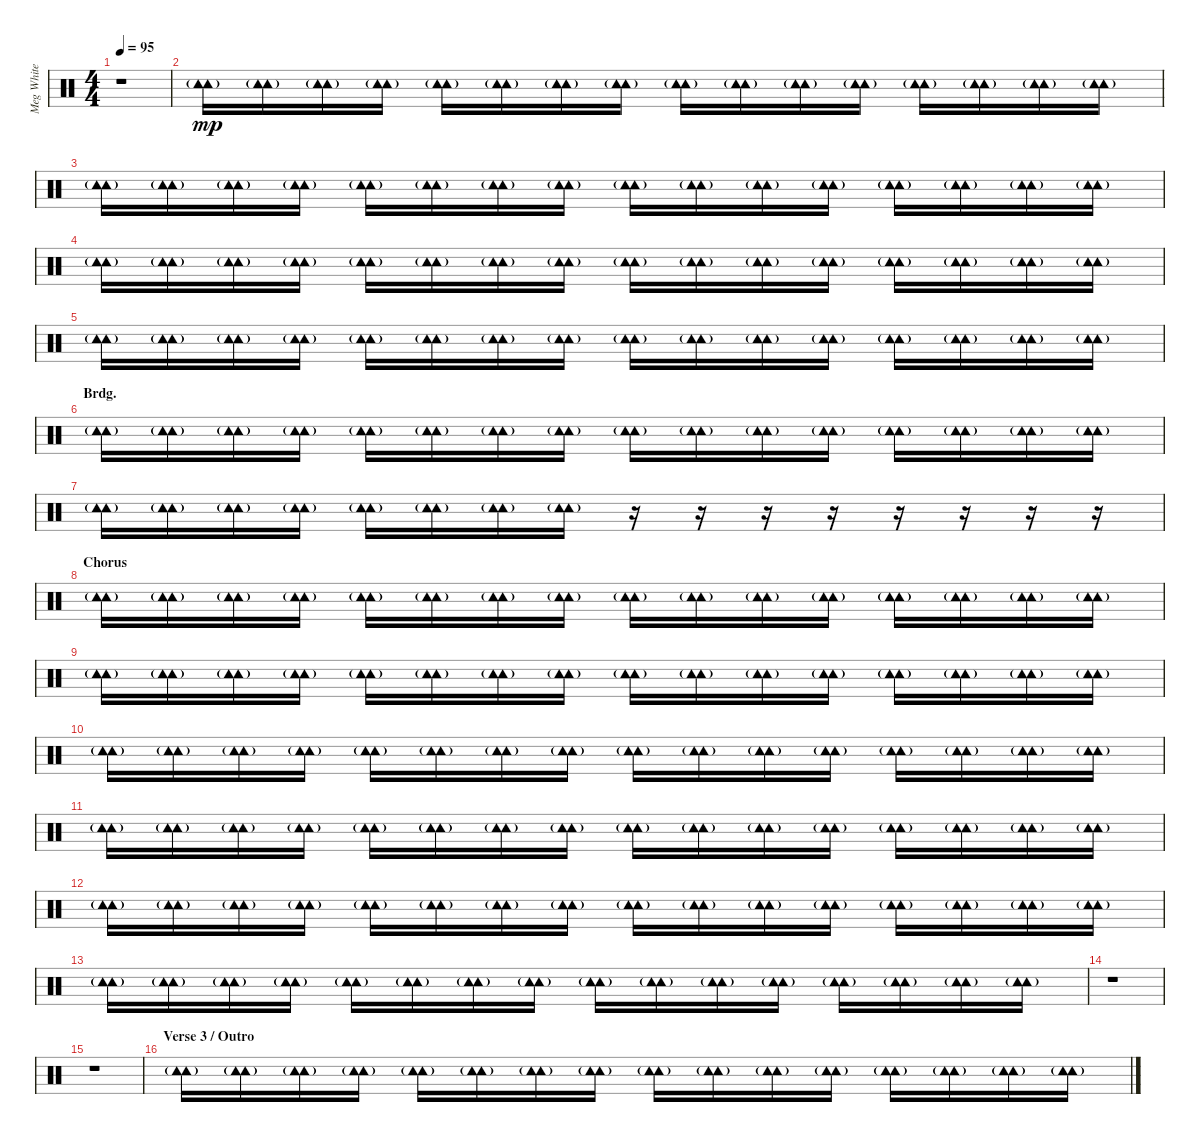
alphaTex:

\track ("Meg White - Purcussions" "Meg White ") {instrument percussion}
\staff {score}
\articulation defaults
\ts (4 4)
\tempo 95
\clef neutral
\ks c
r.1{dy mp} |
("Tambourine (hit)"{g} "Tambourine (hit)"{g}).16 ("Tambourine (hit)"{g} "Tambourine (hit)"{g}).16 ("Tambourine (hit)"{g} "Tambourine (hit)"{g}).16 ("Tambourine (hit)"{g} "Tambourine (hit)"{g}).16 ("Tambourine (hit)"{g} "Tambourine (hit)"{g}).16 ("Tambourine (hit)"{g} "Tambourine (hit)"{g}).16 ("Tambourine (hit)"{g} "Tambourine (hit)"{g}).16 ("Tambourine (hit)"{g} "Tambourine (hit)"{g}).16 ("Tambourine (hit)"{g} "Tambourine (hit)"{g}).16 ("Tambourine (hit)"{g} "Tambourine (hit)"{g}).16 ("Tambourine (hit)"{g} "Tambourine (hit)"{g}).16 ("Tambourine (hit)"{g} "Tambourine (hit)"{g}).16 ("Tambourine (hit)"{g} "Tambourine (hit)"{g}).16 ("Tambourine (hit)"{g} "Tambourine (hit)"{g}).16 ("Tambourine (hit)"{g} "Tambourine (hit)"{g}).16 ("Tambourine (hit)"{g} "Tambourine (hit)"{g}).16 |
("Tambourine (hit)"{g} "Tambourine (hit)"{g}).16 ("Tambourine (hit)"{g} "Tambourine (hit)"{g}).16 ("Tambourine (hit)"{g} "Tambourine (hit)"{g}).16 ("Tambourine (hit)"{g} "Tambourine (hit)"{g}).16 ("Tambourine (hit)"{g} "Tambourine (hit)"{g}).16 ("Tambourine (hit)"{g} "Tambourine (hit)"{g}).16 ("Tambourine (hit)"{g} "Tambourine (hit)"{g}).16 ("Tambourine (hit)"{g} "Tambourine (hit)"{g}).16 ("Tambourine (hit)"{g} "Tambourine (hit)"{g}).16 ("Tambourine (hit)"{g} "Tambourine (hit)"{g}).16 ("Tambourine (hit)"{g} "Tambourine (hit)"{g}).16 ("Tambourine (hit)"{g} "Tambourine (hit)"{g}).16 ("Tambourine (hit)"{g} "Tambourine (hit)"{g}).16 ("Tambourine (hit)"{g} "Tambourine (hit)"{g}).16 ("Tambourine (hit)"{g} "Tambourine (hit)"{g}).16 ("Tambourine (hit)"{g} "Tambourine (hit)"{g}).16 |
("Tambourine (hit)"{g} "Tambourine (hit)"{g}).16 ("Tambourine (hit)"{g} "Tambourine (hit)"{g}).16 ("Tambourine (hit)"{g} "Tambourine (hit)"{g}).16 ("Tambourine (hit)"{g} "Tambourine (hit)"{g}).16 ("Tambourine (hit)"{g} "Tambourine (hit)"{g}).16 ("Tambourine (hit)"{g} "Tambourine (hit)"{g}).16 ("Tambourine (hit)"{g} "Tambourine (hit)"{g}).16 ("Tambourine (hit)"{g} "Tambourine (hit)"{g}).16 ("Tambourine (hit)"{g} "Tambourine (hit)"{g}).16 ("Tambourine (hit)"{g} "Tambourine (hit)"{g}).16 ("Tambourine (hit)"{g} "Tambourine (hit)"{g}).16 ("Tambourine (hit)"{g} "Tambourine (hit)"{g}).16 ("Tambourine (hit)"{g} "Tambourine (hit)"{g}).16 ("Tambourine (hit)"{g} "Tambourine (hit)"{g}).16 ("Tambourine (hit)"{g} "Tambourine (hit)"{g}).16 ("Tambourine (hit)"{g} "Tambourine (hit)"{g}).16 |
("Tambourine (hit)"{g} "Tambourine (hit)"{g}).16 ("Tambourine (hit)"{g} "Tambourine (hit)"{g}).16 ("Tambourine (hit)"{g} "Tambourine (hit)"{g}).16 ("Tambourine (hit)"{g} "Tambourine (hit)"{g}).16 ("Tambourine (hit)"{g} "Tambourine (hit)"{g}).16 ("Tambourine (hit)"{g} "Tambourine (hit)"{g}).16 ("Tambourine (hit)"{g} "Tambourine (hit)"{g}).16 ("Tambourine (hit)"{g} "Tambourine (hit)"{g}).16 ("Tambourine (hit)"{g} "Tambourine (hit)"{g}).16 ("Tambourine (hit)"{g} "Tambourine (hit)"{g}).16 ("Tambourine (hit)"{g} "Tambourine (hit)"{g}).16 ("Tambourine (hit)"{g} "Tambourine (hit)"{g}).16 ("Tambourine (hit)"{g} "Tambourine (hit)"{g}).16 ("Tambourine (hit)"{g} "Tambourine (hit)"{g}).16 ("Tambourine (hit)"{g} "Tambourine (hit)"{g}).16 ("Tambourine (hit)"{g} "Tambourine (hit)"{g}).16 |
\section ("" "Brdg.")
("Tambourine (hit)"{g} "Tambourine (hit)"{g}).16 ("Tambourine (hit)"{g} "Tambourine (hit)"{g}).16 ("Tambourine (hit)"{g} "Tambourine (hit)"{g}).16 ("Tambourine (hit)"{g} "Tambourine (hit)"{g}).16 ("Tambourine (hit)"{g} "Tambourine (hit)"{g}).16 ("Tambourine (hit)"{g} "Tambourine (hit)"{g}).16 ("Tambourine (hit)"{g} "Tambourine (hit)"{g}).16 ("Tambourine (hit)"{g} "Tambourine (hit)"{g}).16 ("Tambourine (hit)"{g} "Tambourine (hit)"{g}).16 ("Tambourine (hit)"{g} "Tambourine (hit)"{g}).16 ("Tambourine (hit)"{g} "Tambourine (hit)"{g}).16 ("Tambourine (hit)"{g} "Tambourine (hit)"{g}).16 ("Tambourine (hit)"{g} "Tambourine (hit)"{g}).16 ("Tambourine (hit)"{g} "Tambourine (hit)"{g}).16 ("Tambourine (hit)"{g} "Tambourine (hit)"{g}).16 ("Tambourine (hit)"{g} "Tambourine (hit)"{g}).16 |
("Tambourine (hit)"{g} "Tambourine (hit)"{g}).16 ("Tambourine (hit)"{g} "Tambourine (hit)"{g}).16 ("Tambourine (hit)"{g} "Tambourine (hit)"{g}).16 ("Tambourine (hit)"{g} "Tambourine (hit)"{g}).16 ("Tambourine (hit)"{g} "Tambourine (hit)"{g}).16 ("Tambourine (hit)"{g} "Tambourine (hit)"{g}).16 ("Tambourine (hit)"{g} "Tambourine (hit)"{g}).16 ("Tambourine (hit)"{g} "Tambourine (hit)"{g}).16 r.16 r.16 r.16 r.16 r.16 r.16 r.16 r.16 |
\section ("" "Chorus")
("Tambourine (hit)"{g} "Tambourine (hit)"{g}).16 ("Tambourine (hit)"{g} "Tambourine (hit)"{g}).16 ("Tambourine (hit)"{g} "Tambourine (hit)"{g}).16 ("Tambourine (hit)"{g} "Tambourine (hit)"{g}).16 ("Tambourine (hit)"{g} "Tambourine (hit)"{g}).16 ("Tambourine (hit)"{g} "Tambourine (hit)"{g}).16 ("Tambourine (hit)"{g} "Tambourine (hit)"{g}).16 ("Tambourine (hit)"{g} "Tambourine (hit)"{g}).16 ("Tambourine (hit)"{g} "Tambourine (hit)"{g}).16 ("Tambourine (hit)"{g} "Tambourine (hit)"{g}).16 ("Tambourine (hit)"{g} "Tambourine (hit)"{g}).16 ("Tambourine (hit)"{g} "Tambourine (hit)"{g}).16 ("Tambourine (hit)"{g} "Tambourine (hit)"{g}).16 ("Tambourine (hit)"{g} "Tambourine (hit)"{g}).16 ("Tambourine (hit)"{g} "Tambourine (hit)"{g}).16 ("Tambourine (hit)"{g} "Tambourine (hit)"{g}).16 |
("Tambourine (hit)"{g} "Tambourine (hit)"{g}).16 ("Tambourine (hit)"{g} "Tambourine (hit)"{g}).16 ("Tambourine (hit)"{g} "Tambourine (hit)"{g}).16 ("Tambourine (hit)"{g} "Tambourine (hit)"{g}).16 ("Tambourine (hit)"{g} "Tambourine (hit)"{g}).16 ("Tambourine (hit)"{g} "Tambourine (hit)"{g}).16 ("Tambourine (hit)"{g} "Tambourine (hit)"{g}).16 ("Tambourine (hit)"{g} "Tambourine (hit)"{g}).16 ("Tambourine (hit)"{g} "Tambourine (hit)"{g}).16 ("Tambourine (hit)"{g} "Tambourine (hit)"{g}).16 ("Tambourine (hit)"{g} "Tambourine (hit)"{g}).16 ("Tambourine (hit)"{g} "Tambourine (hit)"{g}).16 ("Tambourine (hit)"{g} "Tambourine (hit)"{g}).16 ("Tambourine (hit)"{g} "Tambourine (hit)"{g}).16 ("Tambourine (hit)"{g} "Tambourine (hit)"{g}).16 ("Tambourine (hit)"{g} "Tambourine (hit)"{g}).16 |
("Tambourine (hit)"{g} "Tambourine (hit)"{g}).16 ("Tambourine (hit)"{g} "Tambourine (hit)"{g}).16 ("Tambourine (hit)"{g} "Tambourine (hit)"{g}).16 ("Tambourine (hit)"{g} "Tambourine (hit)"{g}).16 ("Tambourine (hit)"{g} "Tambourine (hit)"{g}).16 ("Tambourine (hit)"{g} "Tambourine (hit)"{g}).16 ("Tambourine (hit)"{g} "Tambourine (hit)"{g}).16 ("Tambourine (hit)"{g} "Tambourine (hit)"{g}).16 ("Tambourine (hit)"{g} "Tambourine (hit)"{g}).16 ("Tambourine (hit)"{g} "Tambourine (hit)"{g}).16 ("Tambourine (hit)"{g} "Tambourine (hit)"{g}).16 ("Tambourine (hit)"{g} "Tambourine (hit)"{g}).16 ("Tambourine (hit)"{g} "Tambourine (hit)"{g}).16 ("Tambourine (hit)"{g} "Tambourine (hit)"{g}).16 ("Tambourine (hit)"{g} "Tambourine (hit)"{g}).16 ("Tambourine (hit)"{g} "Tambourine (hit)"{g}).16 |
("Tambourine (hit)"{g} "Tambourine (hit)"{g}).16 ("Tambourine (hit)"{g} "Tambourine (hit)"{g}).16 ("Tambourine (hit)"{g} "Tambourine (hit)"{g}).16 ("Tambourine (hit)"{g} "Tambourine (hit)"{g}).16 ("Tambourine (hit)"{g} "Tambourine (hit)"{g}).16 ("Tambourine (hit)"{g} "Tambourine (hit)"{g}).16 ("Tambourine (hit)"{g} "Tambourine (hit)"{g}).16 ("Tambourine (hit)"{g} "Tambourine (hit)"{g}).16 ("Tambourine (hit)"{g} "Tambourine (hit)"{g}).16 ("Tambourine (hit)"{g} "Tambourine (hit)"{g}).16 ("Tambourine (hit)"{g} "Tambourine (hit)"{g}).16 ("Tambourine (hit)"{g} "Tambourine (hit)"{g}).16 ("Tambourine (hit)"{g} "Tambourine (hit)"{g}).16 ("Tambourine (hit)"{g} "Tambourine (hit)"{g}).16 ("Tambourine (hit)"{g} "Tambourine (hit)"{g}).16 ("Tambourine (hit)"{g} "Tambourine (hit)"{g}).16 |
("Tambourine (hit)"{g} "Tambourine (hit)"{g}).16 ("Tambourine (hit)"{g} "Tambourine (hit)"{g}).16 ("Tambourine (hit)"{g} "Tambourine (hit)"{g}).16 ("Tambourine (hit)"{g} "Tambourine (hit)"{g}).16 ("Tambourine (hit)"{g} "Tambourine (hit)"{g}).16 ("Tambourine (hit)"{g} "Tambourine (hit)"{g}).16 ("Tambourine (hit)"{g} "Tambourine (hit)"{g}).16 ("Tambourine (hit)"{g} "Tambourine (hit)"{g}).16 ("Tambourine (hit)"{g} "Tambourine (hit)"{g}).16 ("Tambourine (hit)"{g} "Tambourine (hit)"{g}).16 ("Tambourine (hit)"{g} "Tambourine (hit)"{g}).16 ("Tambourine (hit)"{g} "Tambourine (hit)"{g}).16 ("Tambourine (hit)"{g} "Tambourine (hit)"{g}).16 ("Tambourine (hit)"{g} "Tambourine (hit)"{g}).16 ("Tambourine (hit)"{g} "Tambourine (hit)"{g}).16 ("Tambourine (hit)"{g} "Tambourine (hit)"{g}).16 |
("Tambourine (hit)"{g} "Tambourine (hit)"{g}).16 ("Tambourine (hit)"{g} "Tambourine (hit)"{g}).16 ("Tambourine (hit)"{g} "Tambourine (hit)"{g}).16 ("Tambourine (hit)"{g} "Tambourine (hit)"{g}).16 ("Tambourine (hit)"{g} "Tambourine (hit)"{g}).16 ("Tambourine (hit)"{g} "Tambourine (hit)"{g}).16 ("Tambourine (hit)"{g} "Tambourine (hit)"{g}).16 ("Tambourine (hit)"{g} "Tambourine (hit)"{g}).16 ("Tambourine (hit)"{g} "Tambourine (hit)"{g}).16 ("Tambourine (hit)"{g} "Tambourine (hit)"{g}).16 ("Tambourine (hit)"{g} "Tambourine (hit)"{g}).16 ("Tambourine (hit)"{g} "Tambourine (hit)"{g}).16 ("Tambourine (hit)"{g} "Tambourine (hit)"{g}).16 ("Tambourine (hit)"{g} "Tambourine (hit)"{g}).16 ("Tambourine (hit)"{g} "Tambourine (hit)"{g}).16 ("Tambourine (hit)"{g} "Tambourine (hit)"{g}).16 |
r.1 |
r.1 |
\section ("" "Verse 3 / Outro")
("Tambourine (hit)"{g} "Tambourine (hit)"{g}).16 ("Tambourine (hit)"{g} "Tambourine (hit)"{g}).16 ("Tambourine (hit)"{g} "Tambourine (hit)"{g}).16 ("Tambourine (hit)"{g} "Tambourine (hit)"{g}).16 ("Tambourine (hit)"{g} "Tambourine (hit)"{g}).16 ("Tambourine (hit)"{g} "Tambourine (hit)"{g}).16 ("Tambourine (hit)"{g} "Tambourine (hit)"{g}).16 ("Tambourine (hit)"{g} "Tambourine (hit)"{g}).16 ("Tambourine (hit)"{g} "Tambourine (hit)"{g}).16 ("Tambourine (hit)"{g} "Tambourine (hit)"{g}).16 ("Tambourine (hit)"{g} "Tambourine (hit)"{g}).16 ("Tambourine (hit)"{g} "Tambourine (hit)"{g}).16 ("Tambourine (hit)"{g} "Tambourine (hit)"{g}).16 ("Tambourine (hit)"{g} "Tambourine (hit)"{g}).16 ("Tambourine (hit)"{g} "Tambourine (hit)"{g}).16 ("Tambourine (hit)"{g} "Tambourine (hit)"{g}).16
